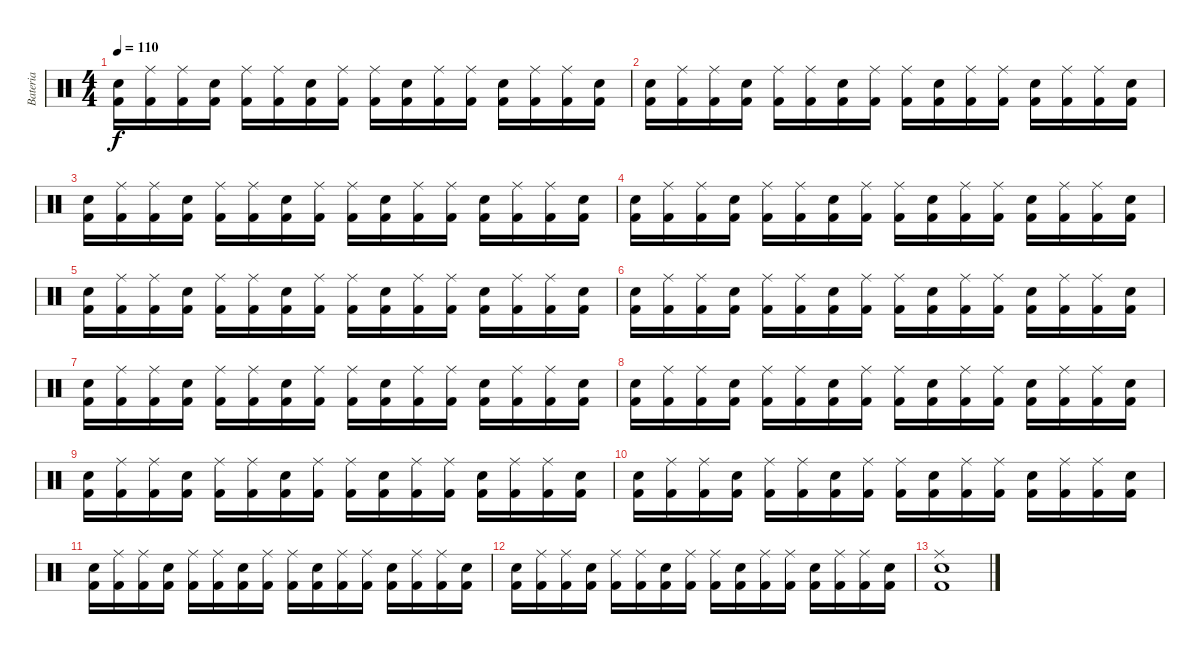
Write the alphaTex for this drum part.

\track ("Bateria" "Bateria") {instrument percussion}
\staff {score}
\articulation defaults
\ts (4 4)
\tempo 110
\clef neutral
\ks c
("Electric Snare (hit)" "Kick (hit) 2").16{dy f} ("Ride (middle)" "Kick (hit) 2").16 ("Ride (middle)" "Kick (hit) 2").16 ("Electric Snare (hit)" "Kick (hit) 2").16 ("Ride (middle)" "Kick (hit) 2").16 ("Ride (middle)" "Kick (hit) 2").16 ("Electric Snare (hit)" "Kick (hit) 2").16 ("Ride (middle)" "Kick (hit) 2").16 ("Ride (middle)" "Kick (hit) 2").16 ("Electric Snare (hit)" "Kick (hit) 2").16 ("Ride (middle)" "Kick (hit) 2").16 ("Ride (middle)" "Kick (hit) 2").16 ("Electric Snare (hit)" "Kick (hit) 2").16 ("Ride (middle)" "Kick (hit) 2").16 ("Ride (middle)" "Kick (hit) 2").16 ("Electric Snare (hit)" "Kick (hit) 2").16 |
("Electric Snare (hit)" "Kick (hit) 2").16 ("Ride (middle)" "Kick (hit) 2").16 ("Ride (middle)" "Kick (hit) 2").16 ("Electric Snare (hit)" "Kick (hit) 2").16 ("Ride (middle)" "Kick (hit) 2").16 ("Ride (middle)" "Kick (hit) 2").16 ("Electric Snare (hit)" "Kick (hit) 2").16 ("Ride (middle)" "Kick (hit) 2").16 ("Ride (middle)" "Kick (hit) 2").16 ("Electric Snare (hit)" "Kick (hit) 2").16 ("Ride (middle)" "Kick (hit) 2").16 ("Ride (middle)" "Kick (hit) 2").16 ("Electric Snare (hit)" "Kick (hit) 2").16 ("Ride (middle)" "Kick (hit) 2").16 ("Ride (middle)" "Kick (hit) 2").16 ("Electric Snare (hit)" "Kick (hit) 2").16 |
("Electric Snare (hit)" "Kick (hit) 2").16 ("Ride (middle)" "Kick (hit) 2").16 ("Ride (middle)" "Kick (hit) 2").16 ("Electric Snare (hit)" "Kick (hit) 2").16 ("Ride (middle)" "Kick (hit) 2").16 ("Ride (middle)" "Kick (hit) 2").16 ("Electric Snare (hit)" "Kick (hit) 2").16 ("Ride (middle)" "Kick (hit) 2").16 ("Ride (middle)" "Kick (hit) 2").16 ("Electric Snare (hit)" "Kick (hit) 2").16 ("Ride (middle)" "Kick (hit) 2").16 ("Ride (middle)" "Kick (hit) 2").16 ("Electric Snare (hit)" "Kick (hit) 2").16 ("Ride (middle)" "Kick (hit) 2").16 ("Ride (middle)" "Kick (hit) 2").16 ("Electric Snare (hit)" "Kick (hit) 2").16 |
("Electric Snare (hit)" "Kick (hit) 2").16 ("Ride (middle)" "Kick (hit) 2").16 ("Ride (middle)" "Kick (hit) 2").16 ("Electric Snare (hit)" "Kick (hit) 2").16 ("Ride (middle)" "Kick (hit) 2").16 ("Ride (middle)" "Kick (hit) 2").16 ("Electric Snare (hit)" "Kick (hit) 2").16 ("Ride (middle)" "Kick (hit) 2").16 ("Ride (middle)" "Kick (hit) 2").16 ("Electric Snare (hit)" "Kick (hit) 2").16 ("Ride (middle)" "Kick (hit) 2").16 ("Ride (middle)" "Kick (hit) 2").16 ("Electric Snare (hit)" "Kick (hit) 2").16 ("Ride (middle)" "Kick (hit) 2").16 ("Ride (middle)" "Kick (hit) 2").16 ("Electric Snare (hit)" "Kick (hit) 2").16 |
("Electric Snare (hit)" "Kick (hit) 2").16 ("Ride (middle)" "Kick (hit) 2").16 ("Ride (middle)" "Kick (hit) 2").16 ("Electric Snare (hit)" "Kick (hit) 2").16 ("Ride (middle)" "Kick (hit) 2").16 ("Ride (middle)" "Kick (hit) 2").16 ("Electric Snare (hit)" "Kick (hit) 2").16 ("Ride (middle)" "Kick (hit) 2").16 ("Ride (middle)" "Kick (hit) 2").16 ("Electric Snare (hit)" "Kick (hit) 2").16 ("Ride (middle)" "Kick (hit) 2").16 ("Ride (middle)" "Kick (hit) 2").16 ("Electric Snare (hit)" "Kick (hit) 2").16 ("Ride (middle)" "Kick (hit) 2").16 ("Ride (middle)" "Kick (hit) 2").16 ("Electric Snare (hit)" "Kick (hit) 2").16 |
("Electric Snare (hit)" "Kick (hit) 2").16 ("Ride (middle)" "Kick (hit) 2").16 ("Ride (middle)" "Kick (hit) 2").16 ("Electric Snare (hit)" "Kick (hit) 2").16 ("Ride (middle)" "Kick (hit) 2").16 ("Ride (middle)" "Kick (hit) 2").16 ("Electric Snare (hit)" "Kick (hit) 2").16 ("Ride (middle)" "Kick (hit) 2").16 ("Ride (middle)" "Kick (hit) 2").16 ("Electric Snare (hit)" "Kick (hit) 2").16 ("Ride (middle)" "Kick (hit) 2").16 ("Ride (middle)" "Kick (hit) 2").16 ("Electric Snare (hit)" "Kick (hit) 2").16 ("Ride (middle)" "Kick (hit) 2").16 ("Ride (middle)" "Kick (hit) 2").16 ("Electric Snare (hit)" "Kick (hit) 2").16 |
("Electric Snare (hit)" "Kick (hit) 2").16 ("Ride (middle)" "Kick (hit) 2").16 ("Ride (middle)" "Kick (hit) 2").16 ("Electric Snare (hit)" "Kick (hit) 2").16 ("Ride (middle)" "Kick (hit) 2").16 ("Ride (middle)" "Kick (hit) 2").16 ("Electric Snare (hit)" "Kick (hit) 2").16 ("Ride (middle)" "Kick (hit) 2").16 ("Ride (middle)" "Kick (hit) 2").16 ("Electric Snare (hit)" "Kick (hit) 2").16 ("Ride (middle)" "Kick (hit) 2").16 ("Ride (middle)" "Kick (hit) 2").16 ("Electric Snare (hit)" "Kick (hit) 2").16 ("Ride (middle)" "Kick (hit) 2").16 ("Ride (middle)" "Kick (hit) 2").16 ("Electric Snare (hit)" "Kick (hit) 2").16 |
("Electric Snare (hit)" "Kick (hit) 2").16 ("Ride (middle)" "Kick (hit) 2").16 ("Ride (middle)" "Kick (hit) 2").16 ("Electric Snare (hit)" "Kick (hit) 2").16 ("Ride (middle)" "Kick (hit) 2").16 ("Ride (middle)" "Kick (hit) 2").16 ("Electric Snare (hit)" "Kick (hit) 2").16 ("Ride (middle)" "Kick (hit) 2").16 ("Ride (middle)" "Kick (hit) 2").16 ("Electric Snare (hit)" "Kick (hit) 2").16 ("Ride (middle)" "Kick (hit) 2").16 ("Ride (middle)" "Kick (hit) 2").16 ("Electric Snare (hit)" "Kick (hit) 2").16 ("Ride (middle)" "Kick (hit) 2").16 ("Ride (middle)" "Kick (hit) 2").16 ("Electric Snare (hit)" "Kick (hit) 2").16 |
("Electric Snare (hit)" "Kick (hit) 2").16 ("Ride (middle)" "Kick (hit) 2").16 ("Ride (middle)" "Kick (hit) 2").16 ("Electric Snare (hit)" "Kick (hit) 2").16 ("Ride (middle)" "Kick (hit) 2").16 ("Ride (middle)" "Kick (hit) 2").16 ("Electric Snare (hit)" "Kick (hit) 2").16 ("Ride (middle)" "Kick (hit) 2").16 ("Ride (middle)" "Kick (hit) 2").16 ("Electric Snare (hit)" "Kick (hit) 2").16 ("Ride (middle)" "Kick (hit) 2").16 ("Ride (middle)" "Kick (hit) 2").16 ("Electric Snare (hit)" "Kick (hit) 2").16 ("Ride (middle)" "Kick (hit) 2").16 ("Ride (middle)" "Kick (hit) 2").16 ("Electric Snare (hit)" "Kick (hit) 2").16 |
("Electric Snare (hit)" "Kick (hit) 2").16 ("Ride (middle)" "Kick (hit) 2").16 ("Ride (middle)" "Kick (hit) 2").16 ("Electric Snare (hit)" "Kick (hit) 2").16 ("Ride (middle)" "Kick (hit) 2").16 ("Ride (middle)" "Kick (hit) 2").16 ("Electric Snare (hit)" "Kick (hit) 2").16 ("Ride (middle)" "Kick (hit) 2").16 ("Ride (middle)" "Kick (hit) 2").16 ("Electric Snare (hit)" "Kick (hit) 2").16 ("Ride (middle)" "Kick (hit) 2").16 ("Ride (middle)" "Kick (hit) 2").16 ("Electric Snare (hit)" "Kick (hit) 2").16 ("Ride (middle)" "Kick (hit) 2").16 ("Ride (middle)" "Kick (hit) 2").16 ("Electric Snare (hit)" "Kick (hit) 2").16 |
("Electric Snare (hit)" "Kick (hit) 2").16 ("Ride (middle)" "Kick (hit) 2").16 ("Ride (middle)" "Kick (hit) 2").16 ("Electric Snare (hit)" "Kick (hit) 2").16 ("Ride (middle)" "Kick (hit) 2").16 ("Ride (middle)" "Kick (hit) 2").16 ("Electric Snare (hit)" "Kick (hit) 2").16 ("Ride (middle)" "Kick (hit) 2").16 ("Ride (middle)" "Kick (hit) 2").16 ("Electric Snare (hit)" "Kick (hit) 2").16 ("Ride (middle)" "Kick (hit) 2").16 ("Ride (middle)" "Kick (hit) 2").16 ("Electric Snare (hit)" "Kick (hit) 2").16 ("Ride (middle)" "Kick (hit) 2").16 ("Ride (middle)" "Kick (hit) 2").16 ("Electric Snare (hit)" "Kick (hit) 2").16 |
("Electric Snare (hit)" "Kick (hit) 2").16 ("Ride (middle)" "Kick (hit) 2").16 ("Ride (middle)" "Kick (hit) 2").16 ("Electric Snare (hit)" "Kick (hit) 2").16 ("Ride (middle)" "Kick (hit) 2").16 ("Ride (middle)" "Kick (hit) 2").16 ("Electric Snare (hit)" "Kick (hit) 2").16 ("Ride (middle)" "Kick (hit) 2").16 ("Ride (middle)" "Kick (hit) 2").16 ("Electric Snare (hit)" "Kick (hit) 2").16 ("Ride (middle)" "Kick (hit) 2").16 ("Ride (middle)" "Kick (hit) 2").16 ("Electric Snare (hit)" "Kick (hit) 2").16 ("Ride (middle)" "Kick (hit) 2").16 ("Ride (middle)" "Kick (hit) 2").16 ("Electric Snare (hit)" "Kick (hit) 2").16 |
("Ride (middle)" "Electric Snare (hit)" "Kick (hit) 2").1
